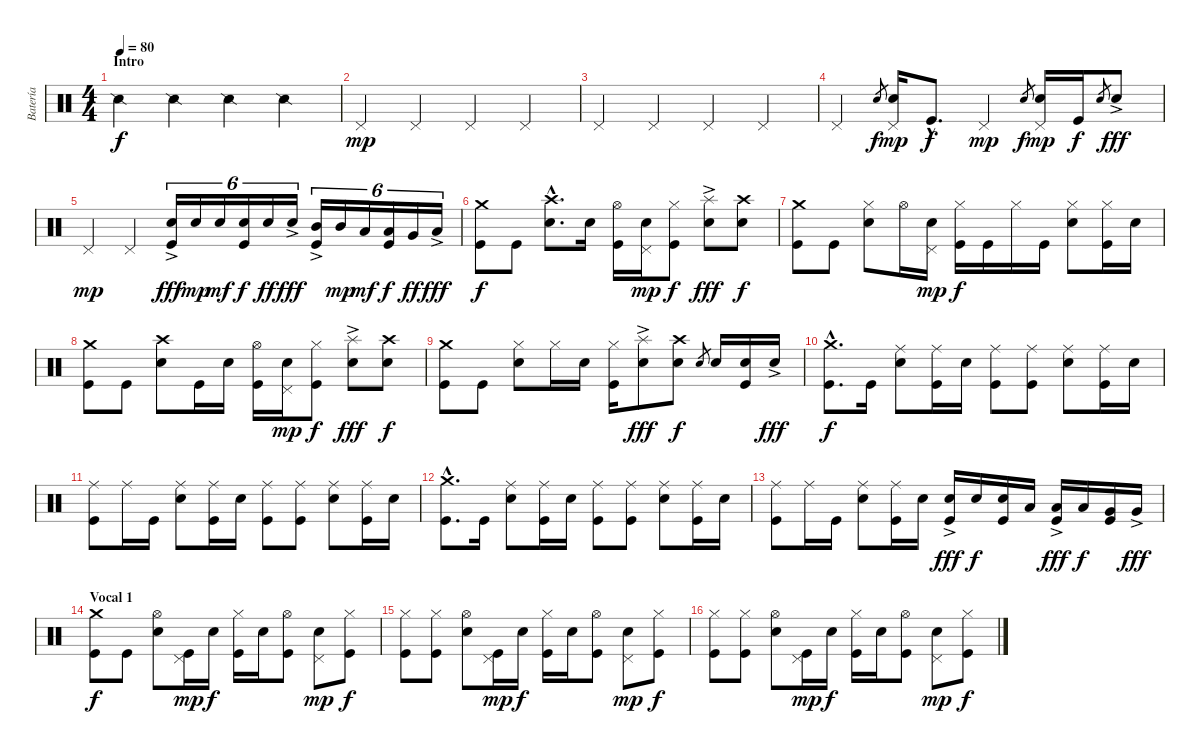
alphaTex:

\track ("Batería" "Batería") {instrument percussion}
\staff {score}
\articulation defaults
\ts (4 4)
\section ("" "Intro")
\tempo 80
\clef neutral
\ks c "Snare (side stick) 2".4{dy f} "Snare (side stick) 2".4 "Snare (side stick) 2".4 "Snare (side stick) 2".4
|
"Pedal Hi-Hat (hit)".4{dy mp} "Pedal Hi-Hat (hit)".4 "Pedal Hi-Hat (hit)".4 "Pedal Hi-Hat (hit)".4 |
"Pedal Hi-Hat (hit)".4 "Pedal Hi-Hat (hit)".4 "Pedal Hi-Hat (hit)".4 "Pedal Hi-Hat (hit)".4 |
"Pedal Hi-Hat (hit)".4 "Electric Snare (hit)".8{gr dy f} ("Electric Snare (hit)" "Pedal Hi-Hat (hit)").16{dy mp} "Kick (hit)"{hac}.8{d dy f} "Pedal Hi-Hat (hit)".4{dy mp} "Electric Snare (hit)".8{gr dy f} ("Electric Snare (hit)" "Pedal Hi-Hat (hit)").16{dy mp} "Kick (hit)".16{dy f} "Electric Snare (hit)".8{gr} "Electric Snare (hit)"{ac}.8{dy fff} |
"Pedal Hi-Hat (hit)".4{dy mp} "Pedal Hi-Hat (hit)".4 ("Kick (hit)" "Electric Snare (hit)"{ac}).16{tu (6 4) dy fff} "Electric Snare (hit)".16{tu (6 4) dy mp} "Electric Snare (hit)".16{tu (6 4) dy mf} ("Kick (hit)" "Electric Snare (hit)").16{tu (6 4) dy f} "Electric Snare (hit)".16{tu (6 4) dy ff} "Electric Snare (hit)"{ac}.16{tu (6 4) dy fff} ("Kick (hit)" "Mid Tom (hit)"{ac}).16{tu (6 4)} "Mid Tom (hit)".16{tu (6 4) dy mp} "Low Tom (hit)".16{tu (6 4) dy mf} ("Kick (hit)" "Low Tom (hit)").16{tu (6 4) dy f} "Very Low Tom (hit)".16{tu (6 4) dy ff} "Low Floor Tom (hit)"{ac}.16{tu (6 4) dy fff} |
("Kick (hit)" "Crash medium (hit)").8{dy f} "Kick (hit)".8 ("Electric Snare (hit)"{hac} "Crash high (hit)"{hac}).8{d} "Electric Snare (hit)".16 ("Kick (hit)" "Hi-Hat (open)").16 ("Electric Snare (hit)" "Pedal Hi-Hat (hit)").16{dy mp} ("Kick (hit)" "Hi-Hat (closed)").8{dy f} ("Electric Snare (hit)" "Splash (hit)"{ac}).8{dy fff} ("Electric Snare (hit)" "Crash high (hit)").8{dy f} |
("Kick (hit)" "Crash medium (hit)").8 "Kick (hit)".8 ("Electric Snare (hit)" "Hi-Hat (closed)").8 "Hi-Hat (open)".16 ("Electric Snare (hit)" "Pedal Hi-Hat (hit)").16{dy mp} ("Kick (hit)" "Hi-Hat (closed)").16{dy f} "Kick (hit)".16 "Hi-Hat (closed)".16 "Kick (hit)".16 ("Electric Snare (hit)" "Hi-Hat (closed)").8 ("Kick (hit)" "Hi-Hat (closed)").16 "Electric Snare (hit)".16 |
("Kick (hit)" "Crash medium (hit)").8 "Kick (hit)".8 ("Electric Snare (hit)" "Crash high (hit)").8 "Kick (hit)".16 "Electric Snare (hit)".16 ("Kick (hit)" "Hi-Hat (open)").16 ("Electric Snare (hit)" "Pedal Hi-Hat (hit)").16{dy mp} ("Kick (hit)" "Hi-Hat (closed)").8{dy f} ("Electric Snare (hit)" "Splash (hit)"{ac}).8{dy fff} ("Electric Snare (hit)" "Crash high (hit)").8{dy f} |
("Kick (hit)" "Crash medium (hit)").8 "Kick (hit)".8 ("Electric Snare (hit)" "Hi-Hat (closed)").8 "Hi-Hat (closed)".16 "Electric Snare (hit)".16 ("Kick (hit)" "Hi-Hat (closed)").16 ("Electric Snare (hit)" "Splash (hit)"{ac}).8{dy fff} ("Electric Snare (hit)" "Crash high (hit)").8{dy f} "Electric Snare (hit)".8{gr} "Electric Snare (hit)".16 ("Kick (hit)" "Electric Snare (hit)").16 "Electric Snare (hit)"{ac}.16{dy fff} |
("Kick (hit)"{hac} "Crash medium (hit)"{hac}).8{d dy f} "Kick (hit)".16 ("Electric Snare (hit)" "Ride (middle)").8 ("Kick (hit)" "Ride (middle)").16 "Electric Snare (hit)".16 ("Kick (hit)" "Ride (middle)").8 ("Kick (hit)" "Ride (middle)").8 ("Electric Snare (hit)" "Ride (middle)").8 ("Kick (hit)" "Ride (middle)").16 "Electric Snare (hit)".16 |
("Kick (hit)" "Ride (middle)").8 "Ride (middle)".16 "Kick (hit)".16 ("Electric Snare (hit)" "Ride (middle)").8 ("Kick (hit)" "Ride (middle)").16 "Electric Snare (hit)".16 ("Kick (hit)" "Ride (middle)").8 ("Kick (hit)" "Ride (middle)").8 ("Electric Snare (hit)" "Ride (middle)").8 ("Kick (hit)" "Ride (middle)").16 "Electric Snare (hit)".16 |
("Kick (hit)"{hac} "Crash medium (hit)"{hac}).8{d} "Kick (hit)".16 ("Electric Snare (hit)" "Ride (middle)").8 ("Kick (hit)" "Ride (middle)").16 "Electric Snare (hit)".16 ("Kick (hit)" "Ride (middle)").8 ("Kick (hit)" "Ride (middle)").8 ("Electric Snare (hit)" "Ride (middle)").8 ("Kick (hit)" "Ride (middle)").16 "Electric Snare (hit)".16 |
("Kick (hit)" "Ride (middle)").8 "Ride (middle)".16 "Kick (hit)".16 ("Electric Snare (hit)" "Ride (middle)").8 ("Kick (hit)" "Ride (middle)").16 "Electric Snare (hit)".16 ("Kick (hit)" "Electric Snare (hit)"{ac}).16{dy fff} "Electric Snare (hit)".16{dy f} ("Kick (hit)" "Electric Snare (hit)").16 "Low Tom (hit)".16 ("Kick (hit)" "Low Tom (hit)"{ac}).16{dy fff} "Low Tom (hit)".16{dy f} ("Kick (hit)" "Very Low Tom (hit)").16 "Very Low Tom (hit)"{ac}.16{dy fff} |
\section ("" "Vocal 1")
("Kick (hit)" "Crash medium (hit)").8{dy f} "Kick (hit)".8 ("Electric Snare (hit)" "Hi-Hat (open)").8 ("Kick (hit)" "Pedal Hi-Hat (hit)").16{dy mp} "Electric Snare (hit)".16{dy f} ("Kick (hit)" "Hi-Hat (closed)").16 "Electric Snare (hit)".16 ("Kick (hit)" "Hi-Hat (open)").8 ("Electric Snare (hit)" "Pedal Hi-Hat (hit)").8{dy mp} ("Kick (hit)" "Hi-Hat (closed)").8{dy f} |
("Kick (hit)" "Hi-Hat (closed)").8 ("Kick (hit)" "Hi-Hat (closed)").8 ("Electric Snare (hit)" "Hi-Hat (open)").8 ("Kick (hit)" "Pedal Hi-Hat (hit)").16{dy mp} "Electric Snare (hit)".16{dy f} ("Kick (hit)" "Hi-Hat (closed)").16 "Electric Snare (hit)".16 ("Kick (hit)" "Hi-Hat (open)").8 ("Electric Snare (hit)" "Pedal Hi-Hat (hit)").8{dy mp} ("Kick (hit)" "Hi-Hat (closed)").8{dy f} |
("Kick (hit)" "Hi-Hat (closed)").8 ("Kick (hit)" "Hi-Hat (closed)").8 ("Electric Snare (hit)" "Hi-Hat (open)").8 ("Kick (hit)" "Pedal Hi-Hat (hit)").16{dy mp} "Electric Snare (hit)".16{dy f} ("Kick (hit)" "Hi-Hat (closed)").16 "Electric Snare (hit)".16 ("Kick (hit)" "Hi-Hat (open)").8 ("Electric Snare (hit)" "Pedal Hi-Hat (hit)").8{dy mp} ("Kick (hit)" "Hi-Hat (closed)").8{dy f}
